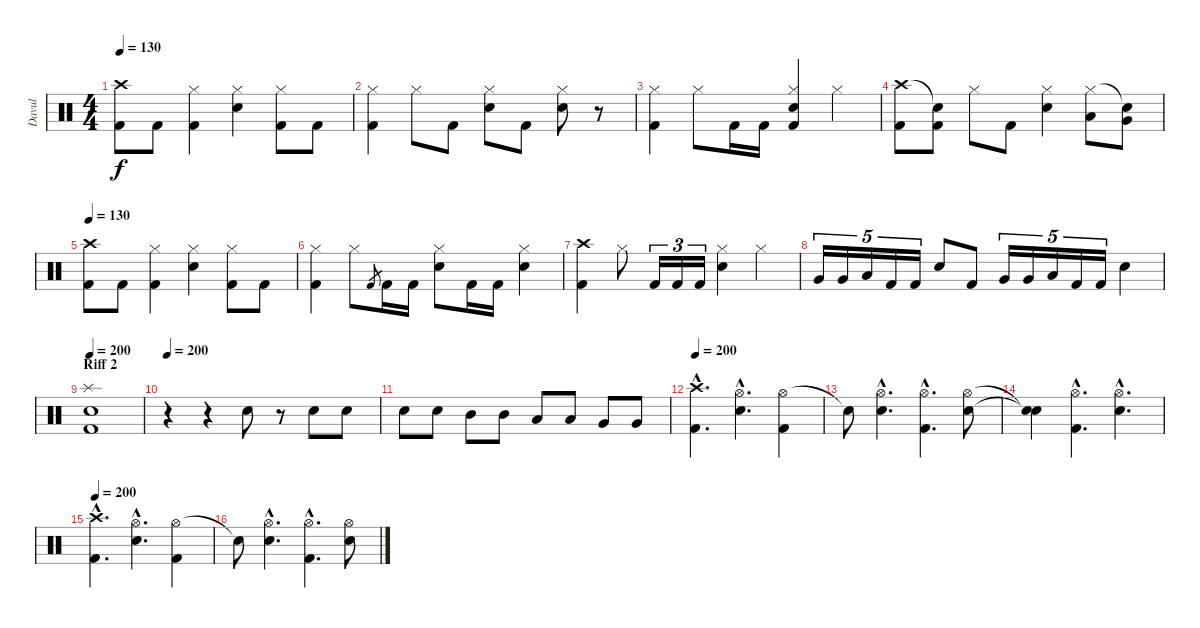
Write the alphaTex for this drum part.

\track ("Davul" "Davul") {instrument percussion}
\staff {score}
\articulation defaults
\ts (4 4)
\tempo 130
\clef neutral
\ks c
("Crash high (hit)" "Kick (hit) 2").8{dy f} "Kick (hit) 2".8 ("Hi-Hat (closed)" "Kick (hit) 2").4 ("Hi-Hat (closed)" "Electric Snare (hit)").4 ("Hi-Hat (closed)" "Kick (hit) 2").8 "Kick (hit) 2".8 |
("Hi-Hat (closed)" "Kick (hit) 2").4 "Hi-Hat (closed)".8 "Kick (hit) 2".8 ("Hi-Hat (closed)" "Electric Snare (hit)").8 "Kick (hit) 2".8 ("Hi-Hat (closed)" "Electric Snare (hit)").8 r.8 |
("Hi-Hat (closed)" "Kick (hit) 2").4 "Hi-Hat (closed)".8 "Kick (hit) 2".16 "Kick (hit) 2".16 ("Hi-Hat (closed)" "Electric Snare (hit)" "Kick (hit) 2").4 "Hi-Hat (closed)".4 |
("Crash high (hit)" "Kick (hit) 2").8 ("Snare (hit)"{t} "Kick (hit) 2").8 "Hi-Hat (closed)".8 "Kick (hit) 2".8 ("Hi-Hat (closed)" "Electric Snare (hit)").4 ("Hi-Hat (closed)" "Low Tom (hit)").8 ("Snare (hit)"{t} "Very Low Tom (hit)").8 |
\tempo 130
("Crash high (hit)" "Kick (hit) 2").8 "Kick (hit) 2".8 ("Hi-Hat (closed)" "Kick (hit) 2").4 ("Hi-Hat (closed)" "Electric Snare (hit)").4 ("Hi-Hat (closed)" "Kick (hit) 2").8 "Kick (hit) 2".8 |
("Hi-Hat (closed)" "Kick (hit) 2").4 "Hi-Hat (closed)".8 "Kick (hit) 2".8{gr} "Kick (hit) 2".16 "Kick (hit) 2".16 ("Hi-Hat (closed)" "Electric Snare (hit)").8 "Kick (hit) 2".16 "Kick (hit) 2".16 ("Hi-Hat (closed)" "Electric Snare (hit)").4 |
("Crash high (hit)" "Kick (hit) 2").4 "Hi-Hat (closed)".8 "Kick (hit) 2".16{tu (3 2)} "Kick (hit) 2".16{tu (3 2)} "Kick (hit) 2".16{tu (3 2)} ("Hi-Hat (closed)" "Electric Snare (hit)").4 "Hi-Hat (closed)".4 |
"Very Low Tom (hit)".16{tu (5 4)} "Very Low Tom (hit)".16{tu (5 4)} "Low Tom (hit)".16{tu (5 4)} "Kick (hit) 2".16{tu (5 4)} "Kick (hit) 2".16{tu (5 4)} "Electric Snare (hit)".8 "Kick (hit) 2".8 "Very Low Tom (hit)".16{tu (5 4)} "Very Low Tom (hit)".16{tu (5 4)} "Low Tom (hit)".16{tu (5 4)} "Kick (hit) 2".16{tu (5 4)} "Kick (hit) 2".16{tu (5 4)} "Electric Snare (hit)".4 |
\section ("" "Riff 2")
\tempo 200
("Splash (hit)" "Electric Snare (hit)" "Kick (hit) 2").1 |
\tempo 200
r.4 r.4 "Electric Snare (hit)".8 r.8 "Electric Snare (hit)".8 "Electric Snare (hit)".8 |
"Electric Snare (hit)".8 "Electric Snare (hit)".8 "Mid Tom (hit)".8 "Mid Tom (hit)".8 "Low Tom (hit)".8 "Low Tom (hit)".8 "Very Low Tom (hit)".8 "Very Low Tom (hit)".8 |
\tempo 200
("Crash high (hit)"{hac} "Kick (hit) 2"{hac}).4{d} ("Hi-Hat (open)"{hac} "Electric Snare (hit)"{hac}).4{d} ("Hi-Hat (open)" "Kick (hit) 2").4 |
"Snare (hit)"{t}.8 ("Hi-Hat (open)"{hac} "Electric Snare (hit)"{hac}).4{d} ("Hi-Hat (open)"{hac} "Kick (hit) 2"{hac}).4{d} ("Hi-Hat (open)" "Electric Snare (hit)").8 |
("Snare (hit)"{t} "Snare (hit)"{t}).4 ("Hi-Hat (open)"{hac} "Kick (hit) 2"{hac}).4{d} ("Hi-Hat (open)"{hac} "Electric Snare (hit)"{hac}).4{d} |
\tempo 200
("Crash high (hit)"{hac} "Kick (hit) 2"{hac}).4{d} ("Hi-Hat (open)"{hac} "Electric Snare (hit)"{hac}).4{d} ("Hi-Hat (open)" "Kick (hit) 2").4 |
"Snare (hit)"{t}.8 ("Hi-Hat (open)"{hac} "Electric Snare (hit)"{hac}).4{d} ("Hi-Hat (open)"{hac} "Kick (hit) 2"{hac}).4{d} ("Hi-Hat (open)" "Electric Snare (hit)").8
